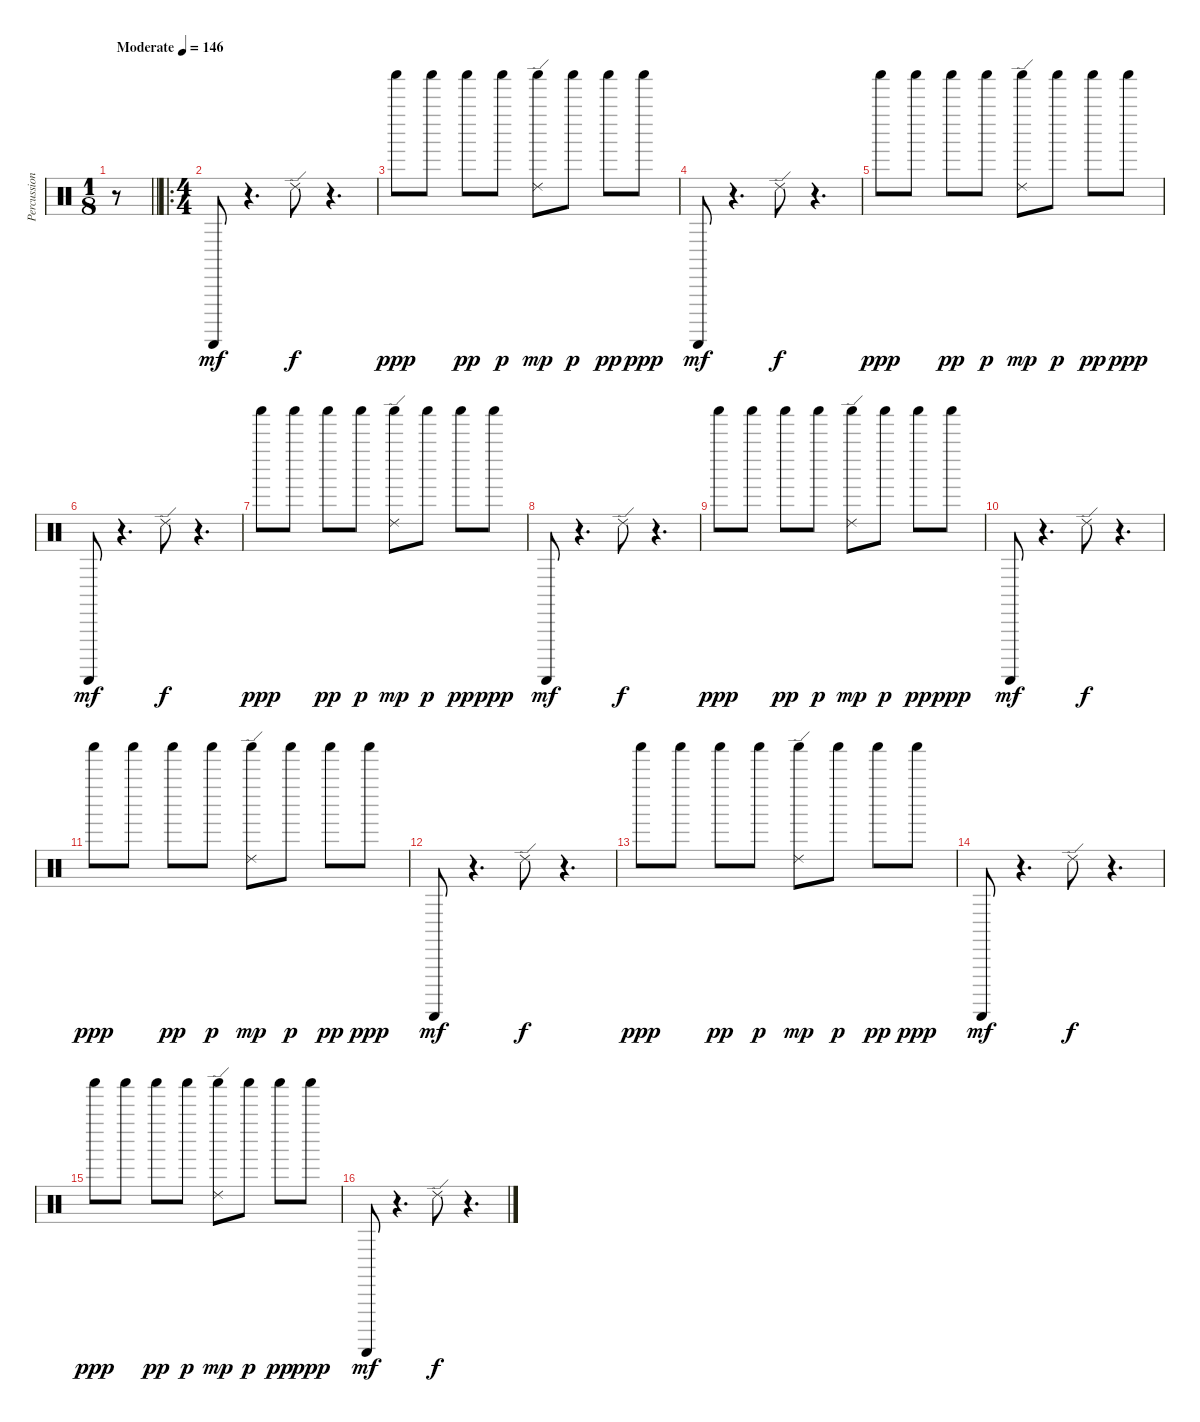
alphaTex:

\track ("Percussion" "Percussion") {instrument percussion}
\staff {score}
\articulation defaults
\ts (1 8)
\tempo (146 "Moderate")
\clef neutral
\barLineRight lightlight
\ks c
r.8{dy mf} |
\ro
\ts (4 4)
"Guiro (scrap-return)".8 r.4{d} "Ride (edge) 2".8{dy f} r.4{d} |
"Shaker (hit)".8{dy ppp} "Shaker (hit)".8 "Shaker (hit)".8{dy pp} "Shaker (hit)".8{dy p} ("Shaker (hit)" "Ride (edge) 2").8{dy mp} "Shaker (hit)".8{dy p} "Shaker (hit)".8{dy pp} "Shaker (hit)".8{dy ppp} |
"Guiro (scrap-return)".8{dy mf} r.4{d} "Ride (edge) 2".8{dy f} r.4{d} |
"Shaker (hit)".8{dy ppp} "Shaker (hit)".8 "Shaker (hit)".8{dy pp} "Shaker (hit)".8{dy p} ("Shaker (hit)" "Ride (edge) 2").8{dy mp} "Shaker (hit)".8{dy p} "Shaker (hit)".8{dy pp} "Shaker (hit)".8{dy ppp} |
"Guiro (scrap-return)".8{dy mf} r.4{d} "Ride (edge) 2".8{dy f} r.4{d} |
"Shaker (hit)".8{dy ppp} "Shaker (hit)".8 "Shaker (hit)".8{dy pp} "Shaker (hit)".8{dy p} ("Shaker (hit)" "Ride (edge) 2").8{dy mp} "Shaker (hit)".8{dy p} "Shaker (hit)".8{dy pp} "Shaker (hit)".8{dy ppp} |
"Guiro (scrap-return)".8{dy mf} r.4{d} "Ride (edge) 2".8{dy f} r.4{d} |
"Shaker (hit)".8{dy ppp} "Shaker (hit)".8 "Shaker (hit)".8{dy pp} "Shaker (hit)".8{dy p} ("Shaker (hit)" "Ride (edge) 2").8{dy mp} "Shaker (hit)".8{dy p} "Shaker (hit)".8{dy pp} "Shaker (hit)".8{dy ppp} |
"Guiro (scrap-return)".8{dy mf} r.4{d} "Ride (edge) 2".8{dy f} r.4{d} |
"Shaker (hit)".8{dy ppp} "Shaker (hit)".8 "Shaker (hit)".8{dy pp} "Shaker (hit)".8{dy p} ("Shaker (hit)" "Ride (edge) 2").8{dy mp} "Shaker (hit)".8{dy p} "Shaker (hit)".8{dy pp} "Shaker (hit)".8{dy ppp} |
"Guiro (scrap-return)".8{dy mf} r.4{d} "Ride (edge) 2".8{dy f} r.4{d} |
"Shaker (hit)".8{dy ppp} "Shaker (hit)".8 "Shaker (hit)".8{dy pp} "Shaker (hit)".8{dy p} ("Shaker (hit)" "Ride (edge) 2").8{dy mp} "Shaker (hit)".8{dy p} "Shaker (hit)".8{dy pp} "Shaker (hit)".8{dy ppp} |
"Guiro (scrap-return)".8{dy mf} r.4{d} "Ride (edge) 2".8{dy f} r.4{d} |
"Shaker (hit)".8{dy ppp} "Shaker (hit)".8 "Shaker (hit)".8{dy pp} "Shaker (hit)".8{dy p} ("Shaker (hit)" "Ride (edge) 2").8{dy mp} "Shaker (hit)".8{dy p} "Shaker (hit)".8{dy pp} "Shaker (hit)".8{dy ppp} |
"Guiro (scrap-return)".8{dy mf} r.4{d} "Ride (edge) 2".8{dy f} r.4{d}
